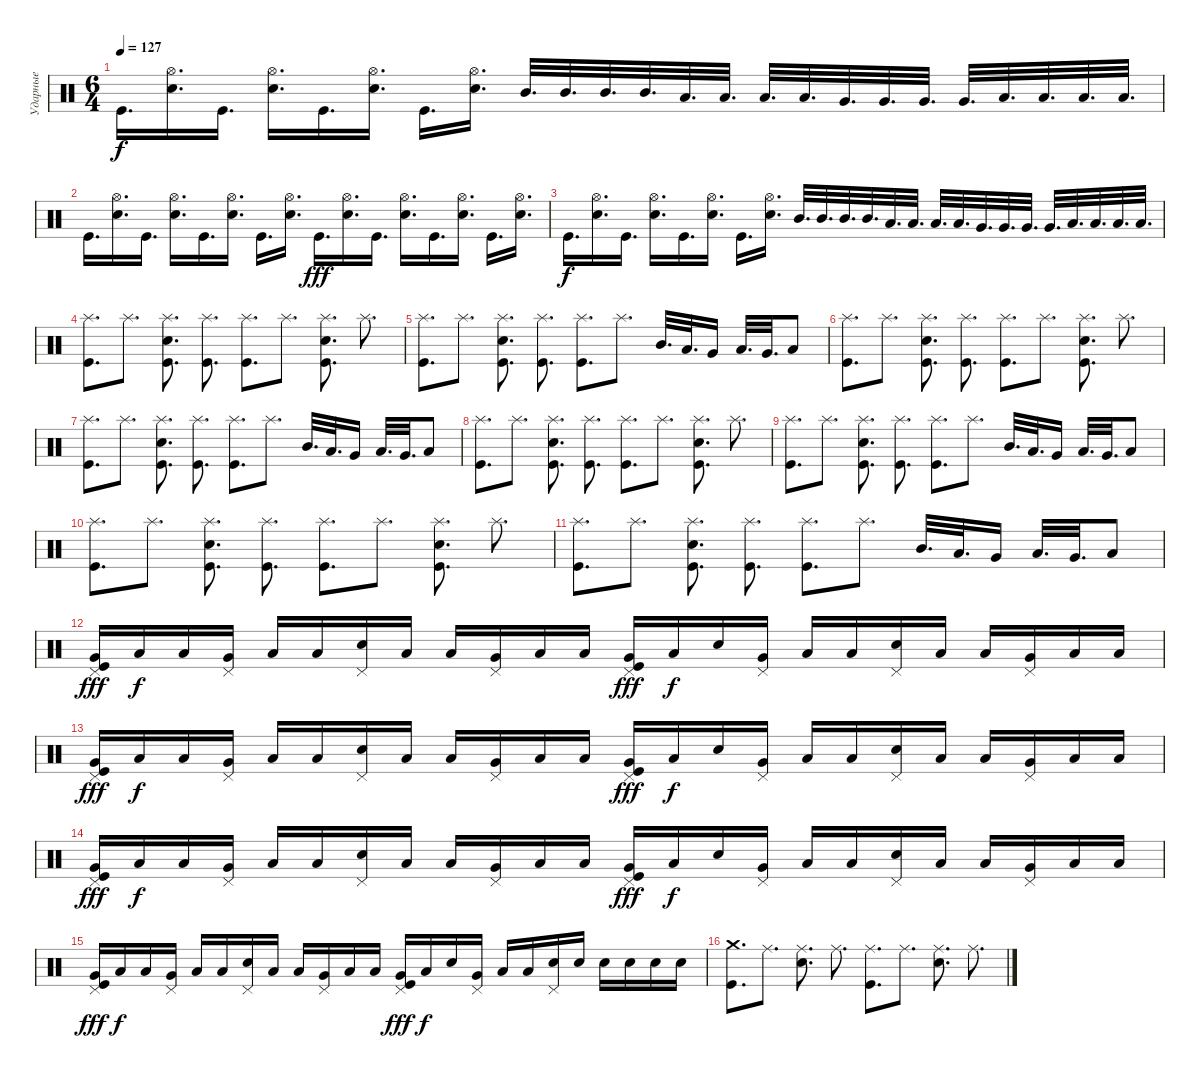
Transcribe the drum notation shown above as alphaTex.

\track ("Ударные" "Ударные") {instrument percussion}
\staff {score}
\articulation defaults
\ts (6 4)
\tempo 127
\clef neutral
\ks c "Kick (hit)".16{d dy f}
("Hi-Hat (open)" "Electric Snare (hit)").16{d} "Kick (hit)".16{d} ("Hi-Hat (open)" "Electric Snare (hit)").16{d} "Kick (hit)".16{d} ("Hi-Hat (open)" "Electric Snare (hit)").16{d} "Kick (hit)".16{d} ("Hi-Hat (open)" "Electric Snare (hit)").16{d} "Mid Tom (hit)".32{d} "Mid Tom (hit)".32{d} "Mid Tom (hit)".32{d} "Mid Tom (hit)".32{d} "Low Tom (hit)".32{d} "Low Tom (hit)".32{d} "Low Tom (hit)".32{d} "Low Tom (hit)".32{d} "Very Low Tom (hit)".32{d} "Very Low Tom (hit)".32{d} "Very Low Tom (hit)".32{d} "Very Low Tom (hit)".32{d} "Low Floor Tom (hit)".32{d} "Low Floor Tom (hit)".32{d} "Low Floor Tom (hit)".32{d} "Low Floor Tom (hit)".32{d} |
"Kick (hit)".16{d} ("Hi-Hat (open)" "Electric Snare (hit)").16{d} "Kick (hit)".16{d} ("Hi-Hat (open)" "Electric Snare (hit)").16{d} "Kick (hit)".16{d} ("Hi-Hat (open)" "Electric Snare (hit)").16{d} "Kick (hit)".16{d} ("Hi-Hat (open)" "Electric Snare (hit)").16{d} "Kick (hit)".16{d dy fff} ("Hi-Hat (open)" "Electric Snare (hit)").16{d} "Kick (hit)".16{d} ("Hi-Hat (open)" "Electric Snare (hit)").16{d} "Kick (hit)".16{d} ("Hi-Hat (open)" "Electric Snare (hit)").16{d} "Kick (hit)".16{d} ("Hi-Hat (open)" "Electric Snare (hit)").16{d} |
"Kick (hit)".16{d dy f} ("Hi-Hat (open)" "Electric Snare (hit)").16{d} "Kick (hit)".16{d} ("Hi-Hat (open)" "Electric Snare (hit)").16{d} "Kick (hit)".16{d} ("Hi-Hat (open)" "Electric Snare (hit)").16{d} "Kick (hit)".16{d} ("Hi-Hat (open)" "Electric Snare (hit)").16{d} "Mid Tom (hit)".32{d} "Mid Tom (hit)".32{d} "Mid Tom (hit)".32{d} "Mid Tom (hit)".32{d} "Low Tom (hit)".32{d} "Low Tom (hit)".32{d} "Low Tom (hit)".32{d} "Low Tom (hit)".32{d} "Very Low Tom (hit)".32{d} "Very Low Tom (hit)".32{d} "Very Low Tom (hit)".32{d} "Very Low Tom (hit)".32{d} "Low Floor Tom (hit)".32{d} "Low Floor Tom (hit)".32{d} "Low Floor Tom (hit)".32{d} "Low Floor Tom (hit)".32{d} |
("Splash (hit)" "Kick (hit)").8{d} "Splash (hit)".8{d} ("Splash (hit)" "Electric Snare (hit)" "Kick (hit)").8{d} ("Splash (hit)" "Kick (hit)").8{d} ("Splash (hit)" "Kick (hit)").8{d} "Splash (hit)".8{d} ("Splash (hit)" "Electric Snare (hit)" "Kick (hit)").8{d} "Splash (hit)".8{d} |
("Splash (hit)" "Kick (hit)").8{d} "Splash (hit)".8{d} ("Splash (hit)" "Electric Snare (hit)" "Kick (hit)").8{d} ("Splash (hit)" "Kick (hit)").8{d} ("Splash (hit)" "Kick (hit)").8{d} "Splash (hit)".8{d} "Mid Tom (hit)".32{d} "Low Tom (hit)".32{d} "Very Low Tom (hit)".16 "Low Tom (hit)".32{d} "Very Low Tom (hit)".32{d} "Low Floor Tom (hit)".8 |
("Splash (hit)" "Kick (hit)").8{d} "Splash (hit)".8{d} ("Splash (hit)" "Electric Snare (hit)" "Kick (hit)").8{d} ("Splash (hit)" "Kick (hit)").8{d} ("Splash (hit)" "Kick (hit)").8{d} "Splash (hit)".8{d} ("Splash (hit)" "Electric Snare (hit)" "Kick (hit)").8{d} "Splash (hit)".8{d} |
("Splash (hit)" "Kick (hit)").8{d} "Splash (hit)".8{d} ("Splash (hit)" "Electric Snare (hit)" "Kick (hit)").8{d} ("Splash (hit)" "Kick (hit)").8{d} ("Splash (hit)" "Kick (hit)").8{d} "Splash (hit)".8{d} "Mid Tom (hit)".32{d} "Low Tom (hit)".32{d} "Very Low Tom (hit)".16 "Low Tom (hit)".32{d} "Very Low Tom (hit)".32{d} "Low Floor Tom (hit)".8 |
("Splash (hit)" "Kick (hit)").8{d} "Splash (hit)".8{d} ("Splash (hit)" "Electric Snare (hit)" "Kick (hit)").8{d} ("Splash (hit)" "Kick (hit)").8{d} ("Splash (hit)" "Kick (hit)").8{d} "Splash (hit)".8{d} ("Splash (hit)" "Electric Snare (hit)" "Kick (hit)").8{d} "Splash (hit)".8{d} |
("Splash (hit)" "Kick (hit)").8{d} "Splash (hit)".8{d} ("Splash (hit)" "Electric Snare (hit)" "Kick (hit)").8{d} ("Splash (hit)" "Kick (hit)").8{d} ("Splash (hit)" "Kick (hit)").8{d} "Splash (hit)".8{d} "Mid Tom (hit)".32{d} "Low Tom (hit)".32{d} "Very Low Tom (hit)".16 "Low Tom (hit)".32{d} "Very Low Tom (hit)".32{d} "Low Floor Tom (hit)".8 |
("Splash (hit)" "Kick (hit)").8{d} "Splash (hit)".8{d} ("Splash (hit)" "Electric Snare (hit)" "Kick (hit)").8{d} ("Splash (hit)" "Kick (hit)").8{d} ("Splash (hit)" "Kick (hit)").8{d} "Splash (hit)".8{d} ("Splash (hit)" "Electric Snare (hit)" "Kick (hit)").8{d} "Splash (hit)".8{d} |
("Splash (hit)" "Kick (hit)").8{d} "Splash (hit)".8{d} ("Splash (hit)" "Electric Snare (hit)" "Kick (hit)").8{d} ("Splash (hit)" "Kick (hit)").8{d} ("Splash (hit)" "Kick (hit)").8{d} "Splash (hit)".8{d} "Mid Tom (hit)".32{d} "Low Tom (hit)".32{d} "Very Low Tom (hit)".16 "Low Tom (hit)".32{d} "Very Low Tom (hit)".32{d} "Low Floor Tom (hit)".8 |
("Very Low Tom (hit)" "Pedal Hi-Hat (hit)" "Kick (hit)").16{dy fff} "Low Floor Tom (hit)".16{dy f} "Low Floor Tom (hit)".16 ("Very Low Tom (hit)" "Pedal Hi-Hat (hit)").16 "Low Floor Tom (hit)".16 "Low Floor Tom (hit)".16 ("Pedal Hi-Hat (hit)" "Electric Snare (hit)").16 "Low Floor Tom (hit)".16 "Low Floor Tom (hit)".16 ("Very Low Tom (hit)" "Pedal Hi-Hat (hit)").16 "Low Floor Tom (hit)".16 "Low Floor Tom (hit)".16 ("Very Low Tom (hit)" "Pedal Hi-Hat (hit)" "Kick (hit)").16{dy fff} "Low Floor Tom (hit)".16{dy f} "Snare (hit)".16 ("Very Low Tom (hit)" "Pedal Hi-Hat (hit)").16 "Low Floor Tom (hit)".16 "Low Floor Tom (hit)".16 ("Pedal Hi-Hat (hit)" "Electric Snare (hit)").16 "Low Floor Tom (hit)".16 "Low Floor Tom (hit)".16 ("Very Low Tom (hit)" "Pedal Hi-Hat (hit)").16 "Low Floor Tom (hit)".16 "Low Floor Tom (hit)".16 |
("Very Low Tom (hit)" "Pedal Hi-Hat (hit)" "Kick (hit)").16{dy fff} "Low Floor Tom (hit)".16{dy f} "Low Floor Tom (hit)".16 ("Very Low Tom (hit)" "Pedal Hi-Hat (hit)").16 "Low Floor Tom (hit)".16 "Low Floor Tom (hit)".16 ("Pedal Hi-Hat (hit)" "Electric Snare (hit)").16 "Low Floor Tom (hit)".16 "Low Floor Tom (hit)".16 ("Very Low Tom (hit)" "Pedal Hi-Hat (hit)").16 "Low Floor Tom (hit)".16 "Low Floor Tom (hit)".16 ("Very Low Tom (hit)" "Pedal Hi-Hat (hit)" "Kick (hit)").16{dy fff} "Low Floor Tom (hit)".16{dy f} "Snare (hit)".16 ("Very Low Tom (hit)" "Pedal Hi-Hat (hit)").16 "Low Floor Tom (hit)".16 "Low Floor Tom (hit)".16 ("Pedal Hi-Hat (hit)" "Electric Snare (hit)").16 "Low Floor Tom (hit)".16 "Low Floor Tom (hit)".16 ("Very Low Tom (hit)" "Pedal Hi-Hat (hit)").16 "Low Floor Tom (hit)".16 "Low Floor Tom (hit)".16 |
("Very Low Tom (hit)" "Pedal Hi-Hat (hit)" "Kick (hit)").16{dy fff} "Low Floor Tom (hit)".16{dy f} "Low Floor Tom (hit)".16 ("Very Low Tom (hit)" "Pedal Hi-Hat (hit)").16 "Low Floor Tom (hit)".16 "Low Floor Tom (hit)".16 ("Pedal Hi-Hat (hit)" "Electric Snare (hit)").16 "Low Floor Tom (hit)".16 "Low Floor Tom (hit)".16 ("Very Low Tom (hit)" "Pedal Hi-Hat (hit)").16 "Low Floor Tom (hit)".16 "Low Floor Tom (hit)".16 ("Very Low Tom (hit)" "Pedal Hi-Hat (hit)" "Kick (hit)").16{dy fff} "Low Floor Tom (hit)".16{dy f} "Snare (hit)".16 ("Very Low Tom (hit)" "Pedal Hi-Hat (hit)").16 "Low Floor Tom (hit)".16 "Low Floor Tom (hit)".16 ("Pedal Hi-Hat (hit)" "Electric Snare (hit)").16 "Low Floor Tom (hit)".16 "Low Floor Tom (hit)".16 ("Very Low Tom (hit)" "Pedal Hi-Hat (hit)").16 "Low Floor Tom (hit)".16 "Low Floor Tom (hit)".16 |
("Very Low Tom (hit)" "Pedal Hi-Hat (hit)" "Kick (hit)").16{dy fff} "Low Floor Tom (hit)".16{dy f} "Low Floor Tom (hit)".16 ("Very Low Tom (hit)" "Pedal Hi-Hat (hit)").16 "Low Floor Tom (hit)".16 "Low Floor Tom (hit)".16 ("Pedal Hi-Hat (hit)" "Electric Snare (hit)").16 "Low Floor Tom (hit)".16 "Low Floor Tom (hit)".16 ("Very Low Tom (hit)" "Pedal Hi-Hat (hit)").16 "Low Floor Tom (hit)".16 "Low Floor Tom (hit)".16 ("Very Low Tom (hit)" "Pedal Hi-Hat (hit)" "Kick (hit)").16{dy fff} "Low Floor Tom (hit)".16{dy f} "Snare (hit)".16 ("Very Low Tom (hit)" "Pedal Hi-Hat (hit)").16 "Low Floor Tom (hit)".16 "Low Floor Tom (hit)".16 ("Electric Snare (hit)" "Pedal Hi-Hat (hit)").16 "Electric Snare (hit)".16 "Electric Snare (hit)".16 "Electric Snare (hit)".16 "Electric Snare (hit)".16 "Electric Snare (hit)".16 |
("Crash medium (hit)" "Kick (hit)").8{d} "Ride (middle)".8{d} ("Ride (middle)" "Electric Snare (hit)").8{d} "Ride (middle)".8{d} ("Ride (middle)" "Kick (hit)").8{d} "Ride (middle)".8{d} ("Ride (middle)" "Electric Snare (hit)").8{d} "Ride (middle)".8{d}
